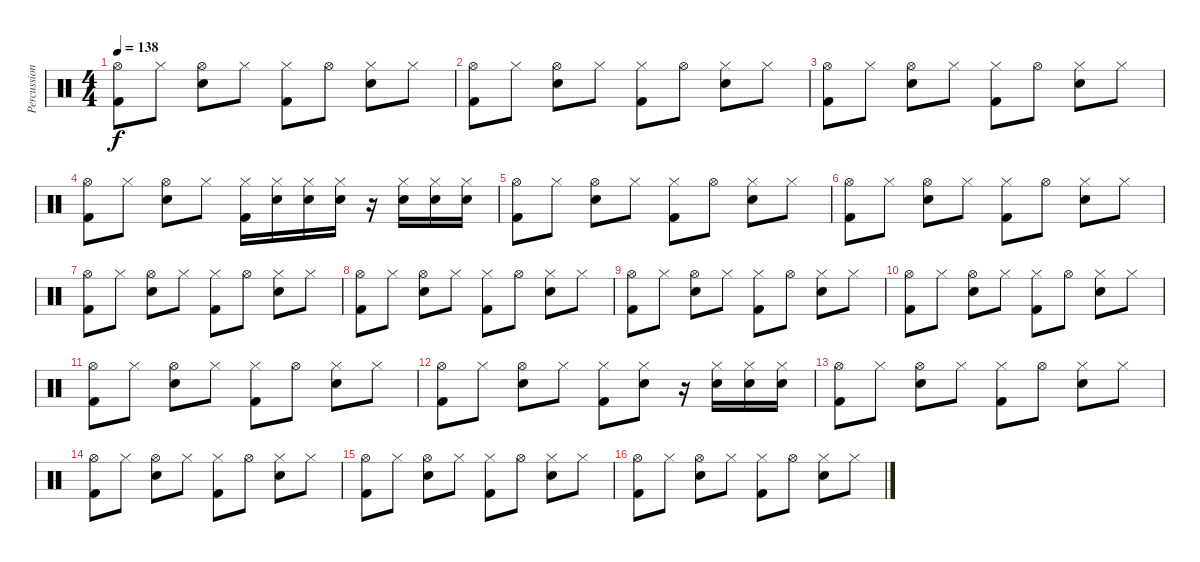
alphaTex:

\track ("Percussions" "Percussion") {instrument percussion}
\staff {score}
\articulation defaults
\ts (4 4)
\tempo 138
\clef neutral
\ks c
("Hi-Hat (open)" "Kick (hit) 2").8{dy f} "Hi-Hat (closed)".8 ("Hi-Hat (open)" "Snare (hit) 2").8 "Hi-Hat (closed)".8 ("Hi-Hat (closed)" "Kick (hit) 2").8 "Hi-Hat (open)".8 ("Hi-Hat (closed)" "Snare (hit) 2").8 "Hi-Hat (closed)".8 |
("Hi-Hat (open)" "Kick (hit) 2").8 "Hi-Hat (closed)".8 ("Hi-Hat (open)" "Snare (hit) 2").8 "Hi-Hat (closed)".8 ("Hi-Hat (closed)" "Kick (hit) 2").8 "Hi-Hat (open)".8 ("Hi-Hat (closed)" "Snare (hit) 2").8 "Hi-Hat (closed)".8 |
("Hi-Hat (open)" "Kick (hit) 2").8 "Hi-Hat (closed)".8 ("Hi-Hat (open)" "Snare (hit) 2").8 "Hi-Hat (closed)".8 ("Hi-Hat (closed)" "Kick (hit) 2").8 "Hi-Hat (open)".8 ("Hi-Hat (closed)" "Snare (hit) 2").8 "Hi-Hat (closed)".8 |
("Hi-Hat (open)" "Kick (hit) 2").8 "Hi-Hat (closed)".8 ("Hi-Hat (open)" "Snare (hit) 2").8 "Hi-Hat (closed)".8 ("Hi-Hat (closed)" "Kick (hit) 2").16 ("Hi-Hat (closed)" "Snare (hit) 2").16 ("Hi-Hat (closed)" "Snare (hit) 2").16 ("Hi-Hat (closed)" "Snare (hit) 2").16 r.16 ("Hi-Hat (closed)" "Snare (hit) 2").16 ("Hi-Hat (closed)" "Snare (hit) 2").16 ("Hi-Hat (closed)" "Snare (hit) 2").16 |
("Hi-Hat (open)" "Kick (hit) 2").8 "Hi-Hat (closed)".8 ("Hi-Hat (open)" "Snare (hit) 2").8 "Hi-Hat (closed)".8 ("Hi-Hat (closed)" "Kick (hit) 2").8 "Hi-Hat (open)".8 ("Hi-Hat (closed)" "Snare (hit) 2").8 "Hi-Hat (closed)".8 |
("Hi-Hat (open)" "Kick (hit) 2").8 "Hi-Hat (closed)".8 ("Hi-Hat (open)" "Snare (hit) 2").8 "Hi-Hat (closed)".8 ("Hi-Hat (closed)" "Kick (hit) 2").8 "Hi-Hat (open)".8 ("Hi-Hat (closed)" "Snare (hit) 2").8 "Hi-Hat (closed)".8 |
("Hi-Hat (open)" "Kick (hit) 2").8 "Hi-Hat (closed)".8 ("Hi-Hat (open)" "Snare (hit) 2").8 "Hi-Hat (closed)".8 ("Hi-Hat (closed)" "Kick (hit) 2").8 "Hi-Hat (open)".8 ("Hi-Hat (closed)" "Snare (hit) 2").8 "Hi-Hat (closed)".8 |
("Hi-Hat (open)" "Kick (hit) 2").8 "Hi-Hat (closed)".8 ("Hi-Hat (open)" "Snare (hit) 2").8 "Hi-Hat (closed)".8 ("Hi-Hat (closed)" "Kick (hit) 2").8 "Hi-Hat (open)".8 ("Hi-Hat (closed)" "Snare (hit) 2").8 "Hi-Hat (closed)".8 |
("Hi-Hat (open)" "Kick (hit) 2").8 "Hi-Hat (closed)".8 ("Hi-Hat (open)" "Snare (hit) 2").8 "Hi-Hat (closed)".8 ("Hi-Hat (closed)" "Kick (hit) 2").8 "Hi-Hat (open)".8 ("Hi-Hat (closed)" "Snare (hit) 2").8 "Hi-Hat (closed)".8 |
("Hi-Hat (open)" "Kick (hit) 2").8 "Hi-Hat (closed)".8 ("Hi-Hat (open)" "Snare (hit) 2").8 "Hi-Hat (closed)".8 ("Hi-Hat (closed)" "Kick (hit) 2").8 "Hi-Hat (open)".8 ("Hi-Hat (closed)" "Snare (hit) 2").8 "Hi-Hat (closed)".8 |
("Hi-Hat (open)" "Kick (hit) 2").8 "Hi-Hat (closed)".8 ("Hi-Hat (open)" "Snare (hit) 2").8 "Hi-Hat (closed)".8 ("Hi-Hat (closed)" "Kick (hit) 2").8 "Hi-Hat (open)".8 ("Hi-Hat (closed)" "Snare (hit) 2").8 "Hi-Hat (closed)".8 |
("Hi-Hat (open)" "Kick (hit) 2").8 "Hi-Hat (closed)".8 ("Hi-Hat (open)" "Snare (hit) 2").8 "Hi-Hat (closed)".8 ("Hi-Hat (closed)" "Kick (hit) 2").8 ("Hi-Hat (closed)" "Snare (hit) 2").8 r.16 ("Hi-Hat (closed)" "Snare (hit) 2").16 ("Hi-Hat (closed)" "Snare (hit) 2").16 ("Hi-Hat (closed)" "Snare (hit) 2").16 |
("Hi-Hat (open)" "Kick (hit) 2").8 "Hi-Hat (closed)".8 ("Hi-Hat (open)" "Snare (hit) 2").8 "Hi-Hat (closed)".8 ("Hi-Hat (closed)" "Kick (hit) 2").8 "Hi-Hat (open)".8 ("Hi-Hat (closed)" "Snare (hit) 2").8 "Hi-Hat (closed)".8 |
("Hi-Hat (open)" "Kick (hit) 2").8 "Hi-Hat (closed)".8 ("Hi-Hat (open)" "Snare (hit) 2").8 "Hi-Hat (closed)".8 ("Hi-Hat (closed)" "Kick (hit) 2").8 "Hi-Hat (open)".8 ("Hi-Hat (closed)" "Snare (hit) 2").8 "Hi-Hat (closed)".8 |
("Hi-Hat (open)" "Kick (hit) 2").8 "Hi-Hat (closed)".8 ("Hi-Hat (open)" "Snare (hit) 2").8 "Hi-Hat (closed)".8 ("Hi-Hat (closed)" "Kick (hit) 2").8 "Hi-Hat (open)".8 ("Hi-Hat (closed)" "Snare (hit) 2").8 "Hi-Hat (closed)".8 |
("Hi-Hat (open)" "Kick (hit) 2").8 "Hi-Hat (closed)".8 ("Hi-Hat (open)" "Snare (hit) 2").8 "Hi-Hat (closed)".8 ("Hi-Hat (closed)" "Kick (hit) 2").8 "Hi-Hat (open)".8 ("Hi-Hat (closed)" "Snare (hit) 2").8 "Hi-Hat (closed)".8
